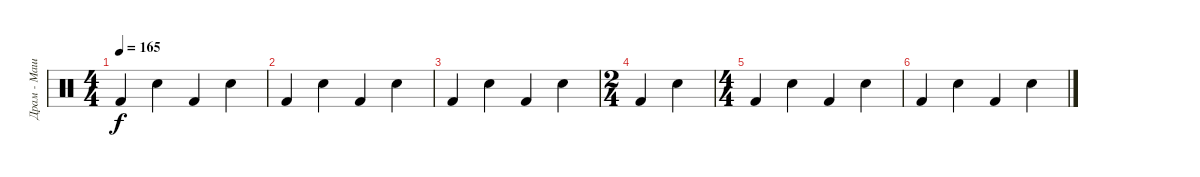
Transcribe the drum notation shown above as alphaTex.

\track ("Драм - Машина" "Драм - Маш") {instrument percussion}
\staff {score}
\articulation defaults
\ts (4 4)
\tempo 165
\clef neutral
\ks c "Kick (hit) 2".4{dy f} "Snare (hit) 2".4 "Kick (hit) 2".4 "Snare (hit) 2".4
|
"Kick (hit) 2".4 "Snare (hit) 2".4 "Kick (hit) 2".4 "Snare (hit) 2".4 |
"Kick (hit) 2".4 "Snare (hit) 2".4 "Kick (hit) 2".4 "Snare (hit) 2".4 |
\ts (2 4)
"Kick (hit) 2".4 "Snare (hit) 2".4 |
\ts (4 4)
"Kick (hit) 2".4 "Snare (hit) 2".4 "Kick (hit) 2".4 "Snare (hit) 2".4 |
"Kick (hit) 2".4 "Snare (hit) 2".4 "Kick (hit) 2".4 "Snare (hit) 2".4
